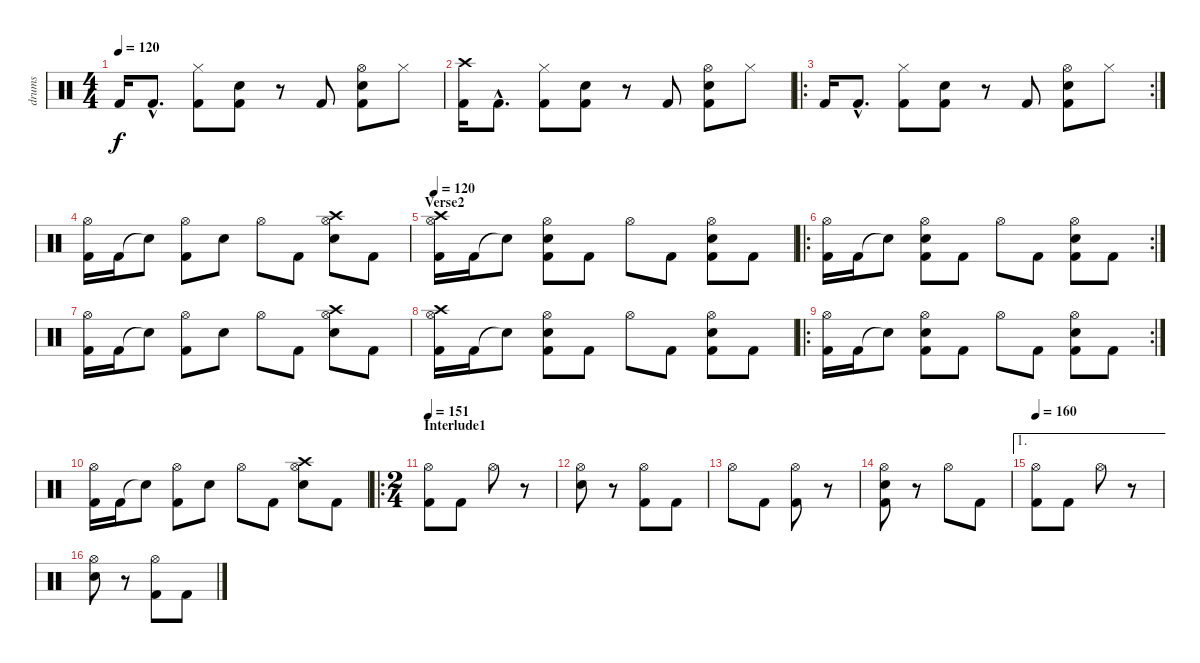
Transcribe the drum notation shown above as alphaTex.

\track ("drums" "drums") {instrument percussion}
\staff {score}
\articulation defaults
\ts (4 4)
\tempo 120
\clef neutral
\ks c "Kick (hit) 2".16{dy f} "Kick (hit) 2"{hac}.8{d}
("Hi-Hat (closed)" "Kick (hit) 2").8 ("Electric Snare (hit)" "Kick (hit) 2").8 r.8 "Kick (hit) 2".8 ("Hi-Hat (open)" "Electric Snare (hit)" "Kick (hit) 2").8 "Hi-Hat (closed)".8 |
("Crash high (hit)" "Kick (hit) 2").16 "Kick (hit) 2"{hac}.8{d} ("Hi-Hat (closed)" "Kick (hit) 2").8 ("Electric Snare (hit)" "Kick (hit) 2").8 r.8 "Kick (hit) 2".8 ("Hi-Hat (open)" "Electric Snare (hit)" "Kick (hit) 2").8 "Hi-Hat (closed)".8 |
\ro
\rc 2 "Kick (hit) 2".16 "Kick (hit) 2"{hac}.8{d}
("Hi-Hat (closed)" "Kick (hit) 2").8 ("Electric Snare (hit)" "Kick (hit) 2").8 r.8 "Kick (hit) 2".8 ("Hi-Hat (open)" "Electric Snare (hit)" "Kick (hit) 2").8 "Hi-Hat (closed)".8 |
("Hi-Hat (open)" "Kick (hit) 2").16 "Kick (hit) 2".16 "Snare (hit)"{t}.8 ("Hi-Hat (open)" "Kick (hit) 2").8 "Electric Snare (hit)".8 "Hi-Hat (open)".8 "Kick (hit) 2".8 ("Crash high (hit)" "Hi-Hat (open)" "Electric Snare (hit)").8 "Kick (hit) 2".8 |
\section ("" "Verse2")
\tempo 120
("Crash high (hit)" "Hi-Hat (open)" "Kick (hit) 2").16 "Kick (hit) 2".16 "Snare (hit)"{t}.8 ("Hi-Hat (open)" "Electric Snare (hit)" "Kick (hit) 2").8 "Kick (hit) 2".8 "Hi-Hat (open)".8 "Kick (hit) 2".8 ("Hi-Hat (open)" "Electric Snare (hit)" "Kick (hit) 2").8 "Kick (hit) 2".8 |
\ro
\rc 2
("Hi-Hat (open)" "Kick (hit) 2").16 "Kick (hit) 2".16 "Snare (hit)"{t}.8 ("Hi-Hat (open)" "Electric Snare (hit)" "Kick (hit) 2").8 "Kick (hit) 2".8 "Hi-Hat (open)".8 "Kick (hit) 2".8 ("Hi-Hat (open)" "Electric Snare (hit)" "Kick (hit) 2").8 "Kick (hit) 2".8 |
("Hi-Hat (open)" "Kick (hit) 2").16 "Kick (hit) 2".16 "Snare (hit)"{t}.8 ("Hi-Hat (open)" "Kick (hit) 2").8 "Electric Snare (hit)".8 "Hi-Hat (open)".8 "Kick (hit) 2".8 ("Crash high (hit)" "Hi-Hat (open)" "Electric Snare (hit)").8 "Kick (hit) 2".8 |
("Crash high (hit)" "Hi-Hat (open)" "Kick (hit) 2").16 "Kick (hit) 2".16 "Snare (hit)"{t}.8 ("Hi-Hat (open)" "Electric Snare (hit)" "Kick (hit) 2").8 "Kick (hit) 2".8 "Hi-Hat (open)".8 "Kick (hit) 2".8 ("Hi-Hat (open)" "Electric Snare (hit)" "Kick (hit) 2").8 "Kick (hit) 2".8 |
\ro
\rc 2
("Hi-Hat (open)" "Kick (hit) 2").16 "Kick (hit) 2".16 "Snare (hit)"{t}.8 ("Hi-Hat (open)" "Electric Snare (hit)" "Kick (hit) 2").8 "Kick (hit) 2".8 "Hi-Hat (open)".8 "Kick (hit) 2".8 ("Hi-Hat (open)" "Electric Snare (hit)" "Kick (hit) 2").8 "Kick (hit) 2".8 |
("Hi-Hat (open)" "Kick (hit) 2").16 "Kick (hit) 2".16 "Snare (hit)"{t}.8 ("Hi-Hat (open)" "Kick (hit) 2").8 "Electric Snare (hit)".8 "Hi-Hat (open)".8 "Kick (hit) 2".8 ("Crash high (hit)" "Hi-Hat (open)" "Electric Snare (hit)").8 "Kick (hit) 2".8 |
\ro
\ts (2 4)
\section ("" "Interlude1")
\tempo 151
("Hi-Hat (open)" "Kick (hit) 2").8 "Kick (hit) 2".8 "Hi-Hat (open)".8 r.8 |
("Hi-Hat (open)" "Electric Snare (hit)").8 r.8 ("Hi-Hat (open)" "Kick (hit) 2").8 "Kick (hit) 2".8 |
"Hi-Hat (open)".8 "Kick (hit) 2".8 ("Hi-Hat (open)" "Kick (hit) 2").8 r.8 |
("Hi-Hat (open)" "Electric Snare (hit)" "Kick (hit) 2").8 r.8 "Hi-Hat (open)".8 "Kick (hit) 2".8 |
\ae 1
\tempo 160
("Hi-Hat (open)" "Kick (hit) 2").8 "Kick (hit) 2".8 "Hi-Hat (open)".8 r.8 |
("Hi-Hat (open)" "Electric Snare (hit)").8 r.8 ("Hi-Hat (open)" "Kick (hit) 2").8 "Kick (hit) 2".8
